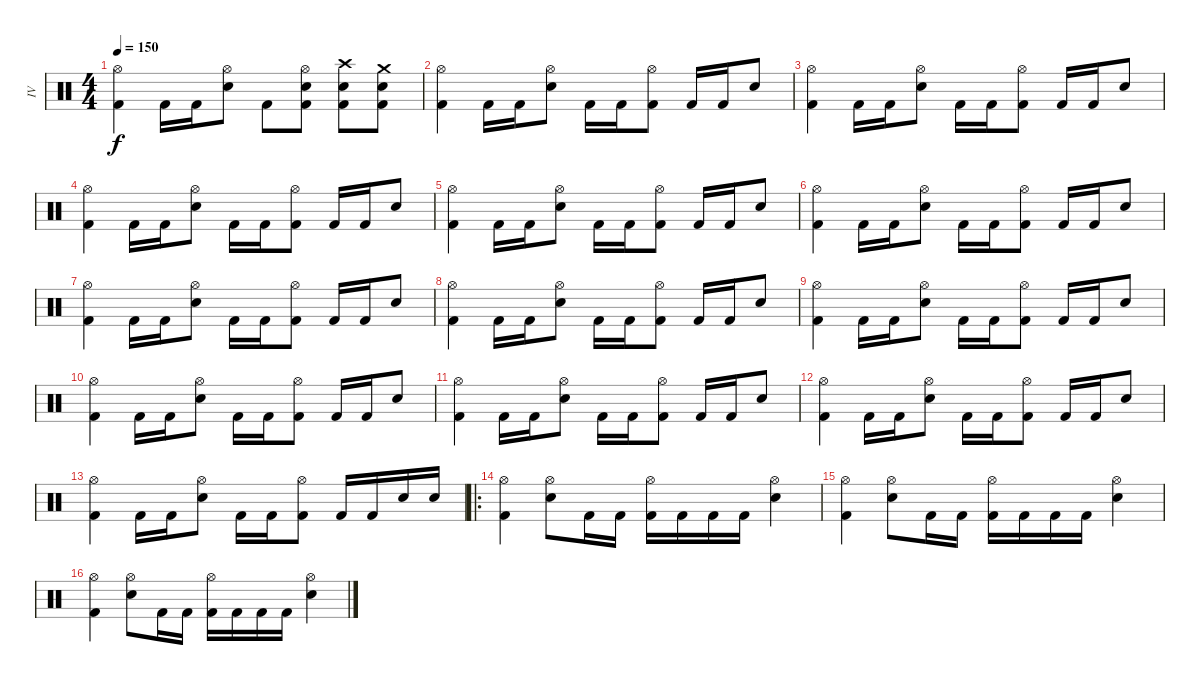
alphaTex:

\track ("IV" "IV") {instrument percussion}
\staff {score}
\articulation defaults
\ts (4 4)
\tempo 150
\clef neutral
\ks c
("Hi-Hat (open)" "Kick (hit) 2").4{dy f} "Kick (hit) 2".16 "Kick (hit) 2".16 ("Hi-Hat (open)" "Snare (hit) 2").8 "Kick (hit) 2".8 ("Hi-Hat (open)" "Snare (hit) 2" "Kick (hit) 2").8 ("Crash high (hit)" "Snare (hit) 2" "Kick (hit) 2").8 ("Crash medium (hit)" "Snare (hit) 2" "Kick (hit) 2").8 |
("Hi-Hat (open)" "Kick (hit) 2").4 "Kick (hit) 2".16 "Kick (hit) 2".16 ("Hi-Hat (open)" "Snare (hit) 2").8 "Kick (hit) 2".16 "Kick (hit) 2".16 ("Hi-Hat (open)" "Kick (hit) 2").8 "Kick (hit) 2".16 "Kick (hit) 2".16 "Snare (hit) 2".8 |
("Hi-Hat (open)" "Kick (hit) 2").4 "Kick (hit) 2".16 "Kick (hit) 2".16 ("Hi-Hat (open)" "Snare (hit) 2").8 "Kick (hit) 2".16 "Kick (hit) 2".16 ("Hi-Hat (open)" "Kick (hit) 2").8 "Kick (hit) 2".16 "Kick (hit) 2".16 "Snare (hit) 2".8 |
("Hi-Hat (open)" "Kick (hit) 2").4 "Kick (hit) 2".16 "Kick (hit) 2".16 ("Hi-Hat (open)" "Snare (hit) 2").8 "Kick (hit) 2".16 "Kick (hit) 2".16 ("Hi-Hat (open)" "Kick (hit) 2").8 "Kick (hit) 2".16 "Kick (hit) 2".16 "Snare (hit) 2".8 |
("Hi-Hat (open)" "Kick (hit) 2").4 "Kick (hit) 2".16 "Kick (hit) 2".16 ("Hi-Hat (open)" "Snare (hit) 2").8 "Kick (hit) 2".16 "Kick (hit) 2".16 ("Hi-Hat (open)" "Kick (hit) 2").8 "Kick (hit) 2".16 "Kick (hit) 2".16 "Snare (hit) 2".8 |
("Hi-Hat (open)" "Kick (hit) 2").4 "Kick (hit) 2".16 "Kick (hit) 2".16 ("Hi-Hat (open)" "Snare (hit) 2").8 "Kick (hit) 2".16 "Kick (hit) 2".16 ("Hi-Hat (open)" "Kick (hit) 2").8 "Kick (hit) 2".16 "Kick (hit) 2".16 "Snare (hit) 2".8 |
("Hi-Hat (open)" "Kick (hit) 2").4 "Kick (hit) 2".16 "Kick (hit) 2".16 ("Hi-Hat (open)" "Snare (hit) 2").8 "Kick (hit) 2".16 "Kick (hit) 2".16 ("Hi-Hat (open)" "Kick (hit) 2").8 "Kick (hit) 2".16 "Kick (hit) 2".16 "Snare (hit) 2".8 |
("Hi-Hat (open)" "Kick (hit) 2").4 "Kick (hit) 2".16 "Kick (hit) 2".16 ("Hi-Hat (open)" "Snare (hit) 2").8 "Kick (hit) 2".16 "Kick (hit) 2".16 ("Hi-Hat (open)" "Kick (hit) 2").8 "Kick (hit) 2".16 "Kick (hit) 2".16 "Snare (hit) 2".8 |
("Hi-Hat (open)" "Kick (hit) 2").4 "Kick (hit) 2".16 "Kick (hit) 2".16 ("Hi-Hat (open)" "Snare (hit) 2").8 "Kick (hit) 2".16 "Kick (hit) 2".16 ("Hi-Hat (open)" "Kick (hit) 2").8 "Kick (hit) 2".16 "Kick (hit) 2".16 "Snare (hit) 2".8 |
("Hi-Hat (open)" "Kick (hit) 2").4 "Kick (hit) 2".16 "Kick (hit) 2".16 ("Hi-Hat (open)" "Snare (hit) 2").8 "Kick (hit) 2".16 "Kick (hit) 2".16 ("Hi-Hat (open)" "Kick (hit) 2").8 "Kick (hit) 2".16 "Kick (hit) 2".16 "Snare (hit) 2".8 |
("Hi-Hat (open)" "Kick (hit) 2").4 "Kick (hit) 2".16 "Kick (hit) 2".16 ("Hi-Hat (open)" "Snare (hit) 2").8 "Kick (hit) 2".16 "Kick (hit) 2".16 ("Hi-Hat (open)" "Kick (hit) 2").8 "Kick (hit) 2".16 "Kick (hit) 2".16 "Snare (hit) 2".8 |
("Hi-Hat (open)" "Kick (hit) 2").4 "Kick (hit) 2".16 "Kick (hit) 2".16 ("Hi-Hat (open)" "Snare (hit) 2").8 "Kick (hit) 2".16 "Kick (hit) 2".16 ("Hi-Hat (open)" "Kick (hit) 2").8 "Kick (hit) 2".16 "Kick (hit) 2".16 "Snare (hit) 2".8 |
("Hi-Hat (open)" "Kick (hit) 2").4 "Kick (hit) 2".16 "Kick (hit) 2".16 ("Hi-Hat (open)" "Snare (hit) 2").8 "Kick (hit) 2".16 "Kick (hit) 2".16 ("Hi-Hat (open)" "Kick (hit) 2").8 "Kick (hit) 2".16 "Kick (hit) 2".16 "Snare (hit) 2".16 "Snare (hit) 2".16 |
\ro
("Hi-Hat (open)" "Kick (hit) 2").4 ("Hi-Hat (open)" "Snare (hit) 2").8 "Kick (hit) 2".16 "Kick (hit) 2".16 ("Hi-Hat (open)" "Kick (hit) 2").16 "Kick (hit) 2".16 "Kick (hit) 2".16 "Kick (hit) 2".16 ("Hi-Hat (open)" "Snare (hit) 2").4 |
("Hi-Hat (open)" "Kick (hit) 2").4 ("Hi-Hat (open)" "Snare (hit) 2").8 "Kick (hit) 2".16 "Kick (hit) 2".16 ("Hi-Hat (open)" "Kick (hit) 2").16 "Kick (hit) 2".16 "Kick (hit) 2".16 "Kick (hit) 2".16 ("Hi-Hat (open)" "Snare (hit) 2").4 |
("Hi-Hat (open)" "Kick (hit) 2").4 ("Hi-Hat (open)" "Snare (hit) 2").8 "Kick (hit) 2".16 "Kick (hit) 2".16 ("Hi-Hat (open)" "Kick (hit) 2").16 "Kick (hit) 2".16 "Kick (hit) 2".16 "Kick (hit) 2".16 ("Hi-Hat (open)" "Snare (hit) 2").4
